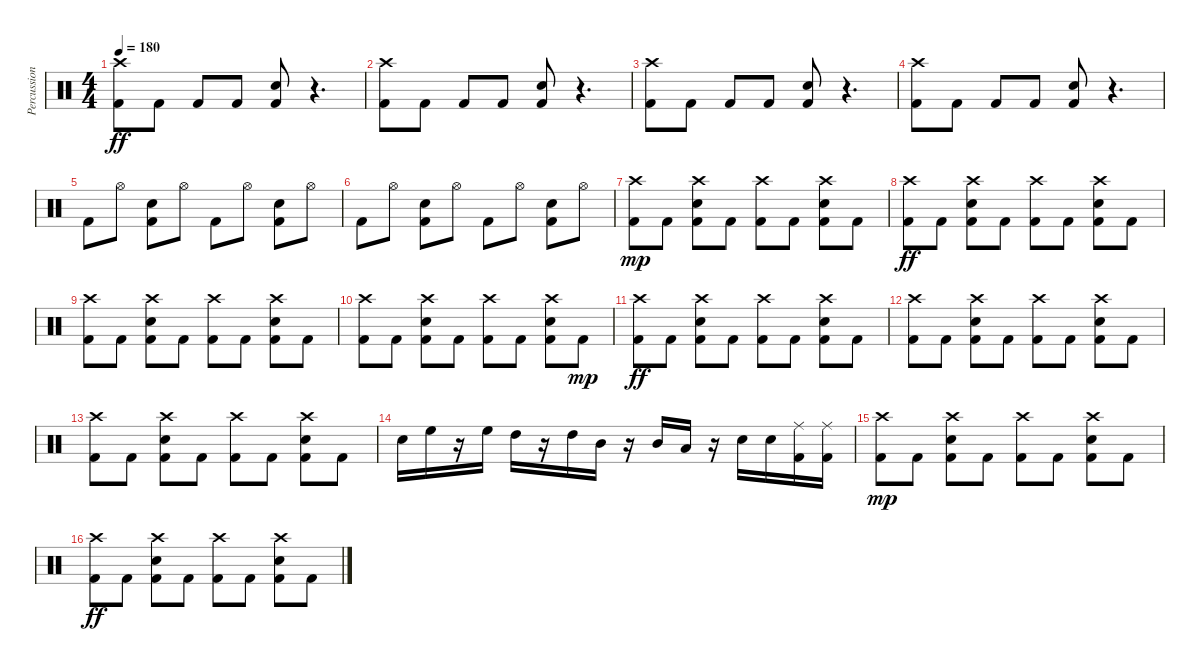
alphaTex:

\track ("Percussion" "Percussion") {instrument percussion}
\staff {score}
\articulation defaults
\ts (4 4)
\tempo 180
\clef neutral
\ks c
("Crash high (hit)" "Kick (hit) 2").8{dy ff} "Kick (hit) 2".8 "Kick (hit) 2".8 "Kick (hit) 2".8 ("Electric Snare (hit)" "Kick (hit) 2").8 r.4{d} |
("Crash high (hit)" "Kick (hit) 2").8 "Kick (hit) 2".8 "Kick (hit) 2".8 "Kick (hit) 2".8 ("Electric Snare (hit)" "Kick (hit) 2").8 r.4{d} |
("Crash high (hit)" "Kick (hit) 2").8 "Kick (hit) 2".8 "Kick (hit) 2".8 "Kick (hit) 2".8 ("Electric Snare (hit)" "Kick (hit) 2").8 r.4{d} |
("Crash high (hit)" "Kick (hit) 2").8 "Kick (hit) 2".8 "Kick (hit) 2".8 "Kick (hit) 2".8 ("Electric Snare (hit)" "Kick (hit) 2").8 r.4{d} |
"Kick (hit) 2".8 "Hi-Hat (open)".8 ("Electric Snare (hit)" "Kick (hit) 2").8 "Hi-Hat (open)".8 "Kick (hit) 2".8 "Hi-Hat (open)".8 ("Electric Snare (hit)" "Kick (hit) 2").8 "Hi-Hat (open)".8 |
"Kick (hit) 2".8 "Hi-Hat (open)".8 ("Electric Snare (hit)" "Kick (hit) 2").8 "Hi-Hat (open)".8 "Kick (hit) 2".8 "Hi-Hat (open)".8 ("Electric Snare (hit)" "Kick (hit) 2").8 "Hi-Hat (open)".8 |
("Crash high (hit)" "Kick (hit) 2").8{dy mp} "Kick (hit) 2".8 ("Crash high (hit)" "Electric Snare (hit)" "Kick (hit) 2").8 "Kick (hit) 2".8 ("Crash high (hit)" "Kick (hit) 2").8 "Kick (hit) 2".8 ("Crash high (hit)" "Electric Snare (hit)" "Kick (hit) 2").8 "Kick (hit) 2".8 |
("Crash high (hit)" "Kick (hit) 2").8{dy ff} "Kick (hit) 2".8 ("Crash high (hit)" "Electric Snare (hit)" "Kick (hit) 2").8 "Kick (hit) 2".8 ("Crash high (hit)" "Kick (hit) 2").8 "Kick (hit) 2".8 ("Crash high (hit)" "Electric Snare (hit)" "Kick (hit) 2").8 "Kick (hit) 2".8 |
("Crash high (hit)" "Kick (hit) 2").8 "Kick (hit) 2".8 ("Crash high (hit)" "Electric Snare (hit)" "Kick (hit) 2").8 "Kick (hit) 2".8 ("Crash high (hit)" "Kick (hit) 2").8 "Kick (hit) 2".8 ("Crash high (hit)" "Electric Snare (hit)" "Kick (hit) 2").8 "Kick (hit) 2".8 |
("Crash high (hit)" "Kick (hit) 2").8 "Kick (hit) 2".8 ("Crash high (hit)" "Electric Snare (hit)" "Kick (hit) 2").8 "Kick (hit) 2".8 ("Crash high (hit)" "Kick (hit) 2").8 "Kick (hit) 2".8 ("Crash high (hit)" "Electric Snare (hit)" "Kick (hit) 2").8 "Kick (hit) 2".8{dy mp} |
("Crash high (hit)" "Kick (hit) 2").8{dy ff} "Kick (hit) 2".8 ("Crash high (hit)" "Electric Snare (hit)" "Kick (hit) 2").8 "Kick (hit) 2".8 ("Crash high (hit)" "Kick (hit) 2").8 "Kick (hit) 2".8 ("Crash high (hit)" "Electric Snare (hit)" "Kick (hit) 2").8 "Kick (hit) 2".8 |
("Crash high (hit)" "Kick (hit) 2").8 "Kick (hit) 2".8 ("Crash high (hit)" "Electric Snare (hit)" "Kick (hit) 2").8 "Kick (hit) 2".8 ("Crash high (hit)" "Kick (hit) 2").8 "Kick (hit) 2".8 ("Crash high (hit)" "Electric Snare (hit)" "Kick (hit) 2").8 "Kick (hit) 2".8 |
("Crash high (hit)" "Kick (hit) 2").8 "Kick (hit) 2".8 ("Crash high (hit)" "Electric Snare (hit)" "Kick (hit) 2").8 "Kick (hit) 2".8 ("Crash high (hit)" "Kick (hit) 2").8 "Kick (hit) 2".8 ("Crash high (hit)" "Electric Snare (hit)" "Kick (hit) 2").8 "Kick (hit) 2".8 |
"Electric Snare (hit)".16 "High Floor Tom (hit)".16 r.16 "High Floor Tom (hit)".16 "High Tom (hit)".16 r.16 "High Tom (hit)".16 "Mid Tom (hit)".16 r.16 "Mid Tom (hit)".16 "Low Tom (hit)".16 r.16 "Electric Snare (hit)".16 "Electric Snare (hit)".16 ("Ride (middle)" "Kick (hit) 2").16 ("Ride (middle)" "Kick (hit) 2").16 |
("Crash high (hit)" "Kick (hit) 2").8{dy mp} "Kick (hit) 2".8 ("Crash high (hit)" "Electric Snare (hit)" "Kick (hit) 2").8 "Kick (hit) 2".8 ("Crash high (hit)" "Kick (hit) 2").8 "Kick (hit) 2".8 ("Crash high (hit)" "Electric Snare (hit)" "Kick (hit) 2").8 "Kick (hit) 2".8 |
("Crash high (hit)" "Kick (hit) 2").8{dy ff} "Kick (hit) 2".8 ("Crash high (hit)" "Electric Snare (hit)" "Kick (hit) 2").8 "Kick (hit) 2".8 ("Crash high (hit)" "Kick (hit) 2").8 "Kick (hit) 2".8 ("Crash high (hit)" "Electric Snare (hit)" "Kick (hit) 2").8 "Kick (hit) 2".8
